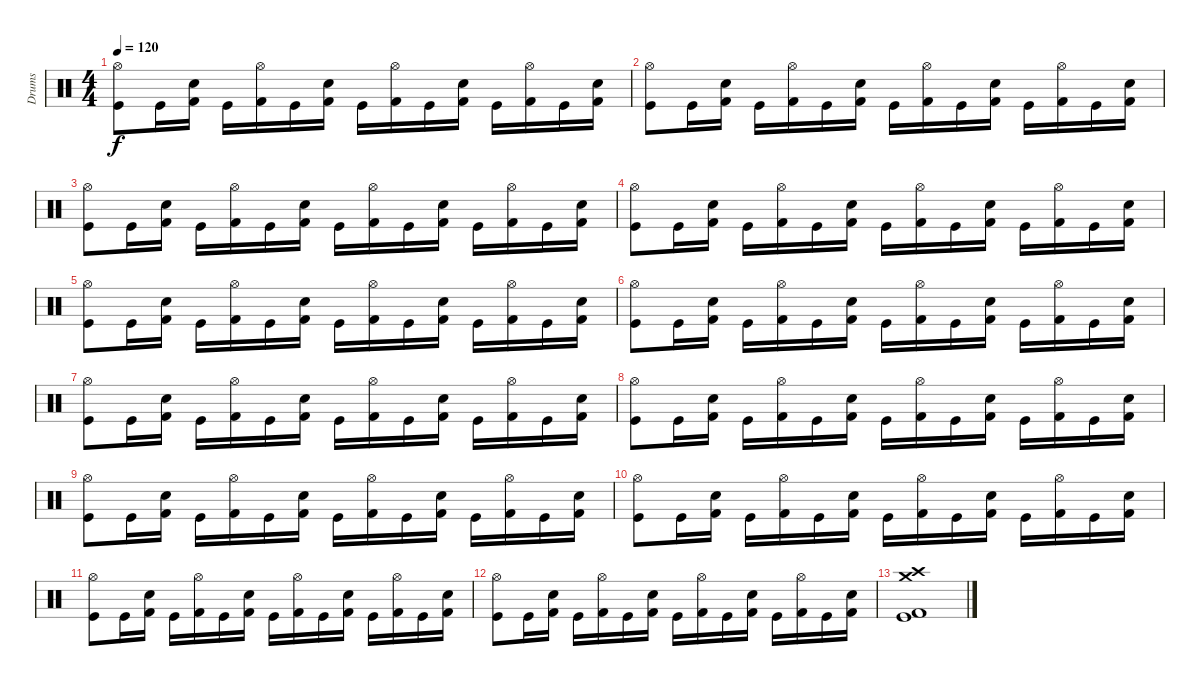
\track ("Drums" "Drums") {instrument percussion}
\staff {score}
\articulation defaults
\ts (4 4)
\tempo 120
\clef neutral
\ks c
("Hi-Hat (open)" "Kick (hit)").8{dy f} "Kick (hit)".16 ("Snare (hit) 2" "Kick (hit) 2").16 "Kick (hit)".16 ("Hi-Hat (open)" "Kick (hit) 2").16 "Kick (hit)".16 ("Snare (hit) 2" "Kick (hit) 2").16 "Kick (hit)".16 ("Hi-Hat (open)" "Kick (hit) 2").16 "Kick (hit)".16 ("Snare (hit) 2" "Kick (hit) 2").16 "Kick (hit)".16 ("Hi-Hat (open)" "Kick (hit) 2").16 "Kick (hit)".16 ("Snare (hit) 2" "Kick (hit) 2").16 |
("Hi-Hat (open)" "Kick (hit)").8 "Kick (hit)".16 ("Snare (hit) 2" "Kick (hit) 2").16 "Kick (hit)".16 ("Hi-Hat (open)" "Kick (hit) 2").16 "Kick (hit)".16 ("Snare (hit) 2" "Kick (hit) 2").16 "Kick (hit)".16 ("Hi-Hat (open)" "Kick (hit) 2").16 "Kick (hit)".16 ("Snare (hit) 2" "Kick (hit) 2").16 "Kick (hit)".16 ("Hi-Hat (open)" "Kick (hit) 2").16 "Kick (hit)".16 ("Snare (hit) 2" "Kick (hit) 2").16 |
("Hi-Hat (open)" "Kick (hit)").8 "Kick (hit)".16 ("Snare (hit) 2" "Kick (hit) 2").16 "Kick (hit)".16 ("Hi-Hat (open)" "Kick (hit) 2").16 "Kick (hit)".16 ("Snare (hit) 2" "Kick (hit) 2").16 "Kick (hit)".16 ("Hi-Hat (open)" "Kick (hit) 2").16 "Kick (hit)".16 ("Snare (hit) 2" "Kick (hit) 2").16 "Kick (hit)".16 ("Hi-Hat (open)" "Kick (hit) 2").16 "Kick (hit)".16 ("Snare (hit) 2" "Kick (hit) 2").16 |
("Hi-Hat (open)" "Kick (hit)").8 "Kick (hit)".16 ("Snare (hit) 2" "Kick (hit) 2").16 "Kick (hit)".16 ("Hi-Hat (open)" "Kick (hit) 2").16 "Kick (hit)".16 ("Snare (hit) 2" "Kick (hit) 2").16 "Kick (hit)".16 ("Hi-Hat (open)" "Kick (hit) 2").16 "Kick (hit)".16 ("Snare (hit) 2" "Kick (hit) 2").16 "Kick (hit)".16 ("Hi-Hat (open)" "Kick (hit) 2").16 "Kick (hit)".16 ("Snare (hit) 2" "Kick (hit) 2").16 |
("Hi-Hat (open)" "Kick (hit)").8 "Kick (hit)".16 ("Snare (hit) 2" "Kick (hit) 2").16 "Kick (hit)".16 ("Hi-Hat (open)" "Kick (hit) 2").16 "Kick (hit)".16 ("Snare (hit) 2" "Kick (hit) 2").16 "Kick (hit)".16 ("Hi-Hat (open)" "Kick (hit) 2").16 "Kick (hit)".16 ("Snare (hit) 2" "Kick (hit) 2").16 "Kick (hit)".16 ("Hi-Hat (open)" "Kick (hit) 2").16 "Kick (hit)".16 ("Snare (hit) 2" "Kick (hit) 2").16 |
("Hi-Hat (open)" "Kick (hit)").8 "Kick (hit)".16 ("Snare (hit) 2" "Kick (hit) 2").16 "Kick (hit)".16 ("Hi-Hat (open)" "Kick (hit) 2").16 "Kick (hit)".16 ("Snare (hit) 2" "Kick (hit) 2").16 "Kick (hit)".16 ("Hi-Hat (open)" "Kick (hit) 2").16 "Kick (hit)".16 ("Snare (hit) 2" "Kick (hit) 2").16 "Kick (hit)".16 ("Hi-Hat (open)" "Kick (hit) 2").16 "Kick (hit)".16 ("Snare (hit) 2" "Kick (hit) 2").16 |
("Hi-Hat (open)" "Kick (hit)").8 "Kick (hit)".16 ("Snare (hit) 2" "Kick (hit) 2").16 "Kick (hit)".16 ("Hi-Hat (open)" "Kick (hit) 2").16 "Kick (hit)".16 ("Snare (hit) 2" "Kick (hit) 2").16 "Kick (hit)".16 ("Hi-Hat (open)" "Kick (hit) 2").16 "Kick (hit)".16 ("Snare (hit) 2" "Kick (hit) 2").16 "Kick (hit)".16 ("Hi-Hat (open)" "Kick (hit) 2").16 "Kick (hit)".16 ("Snare (hit) 2" "Kick (hit) 2").16 |
("Hi-Hat (open)" "Kick (hit)").8 "Kick (hit)".16 ("Snare (hit) 2" "Kick (hit) 2").16 "Kick (hit)".16 ("Hi-Hat (open)" "Kick (hit) 2").16 "Kick (hit)".16 ("Snare (hit) 2" "Kick (hit) 2").16 "Kick (hit)".16 ("Hi-Hat (open)" "Kick (hit) 2").16 "Kick (hit)".16 ("Snare (hit) 2" "Kick (hit) 2").16 "Kick (hit)".16 ("Hi-Hat (open)" "Kick (hit) 2").16 "Kick (hit)".16 ("Snare (hit) 2" "Kick (hit) 2").16 |
("Hi-Hat (open)" "Kick (hit)").8 "Kick (hit)".16 ("Snare (hit) 2" "Kick (hit) 2").16 "Kick (hit)".16 ("Hi-Hat (open)" "Kick (hit) 2").16 "Kick (hit)".16 ("Snare (hit) 2" "Kick (hit) 2").16 "Kick (hit)".16 ("Hi-Hat (open)" "Kick (hit) 2").16 "Kick (hit)".16 ("Snare (hit) 2" "Kick (hit) 2").16 "Kick (hit)".16 ("Hi-Hat (open)" "Kick (hit) 2").16 "Kick (hit)".16 ("Snare (hit) 2" "Kick (hit) 2").16 |
("Hi-Hat (open)" "Kick (hit)").8 "Kick (hit)".16 ("Snare (hit) 2" "Kick (hit) 2").16 "Kick (hit)".16 ("Hi-Hat (open)" "Kick (hit) 2").16 "Kick (hit)".16 ("Snare (hit) 2" "Kick (hit) 2").16 "Kick (hit)".16 ("Hi-Hat (open)" "Kick (hit) 2").16 "Kick (hit)".16 ("Snare (hit) 2" "Kick (hit) 2").16 "Kick (hit)".16 ("Hi-Hat (open)" "Kick (hit) 2").16 "Kick (hit)".16 ("Snare (hit) 2" "Kick (hit) 2").16 |
("Hi-Hat (open)" "Kick (hit)").8 "Kick (hit)".16 ("Snare (hit) 2" "Kick (hit) 2").16 "Kick (hit)".16 ("Hi-Hat (open)" "Kick (hit) 2").16 "Kick (hit)".16 ("Snare (hit) 2" "Kick (hit) 2").16 "Kick (hit)".16 ("Hi-Hat (open)" "Kick (hit) 2").16 "Kick (hit)".16 ("Snare (hit) 2" "Kick (hit) 2").16 "Kick (hit)".16 ("Hi-Hat (open)" "Kick (hit) 2").16 "Kick (hit)".16 ("Snare (hit) 2" "Kick (hit) 2").16 |
("Hi-Hat (open)" "Kick (hit)").8 "Kick (hit)".16 ("Snare (hit) 2" "Kick (hit) 2").16 "Kick (hit)".16 ("Hi-Hat (open)" "Kick (hit) 2").16 "Kick (hit)".16 ("Snare (hit) 2" "Kick (hit) 2").16 "Kick (hit)".16 ("Hi-Hat (open)" "Kick (hit) 2").16 "Kick (hit)".16 ("Snare (hit) 2" "Kick (hit) 2").16 "Kick (hit)".16 ("Hi-Hat (open)" "Kick (hit) 2").16 "Kick (hit)".16 ("Snare (hit) 2" "Kick (hit) 2").16 |
("Crash high (hit)" "Crash medium (hit)" "Kick (hit) 2" "Kick (hit)").1
